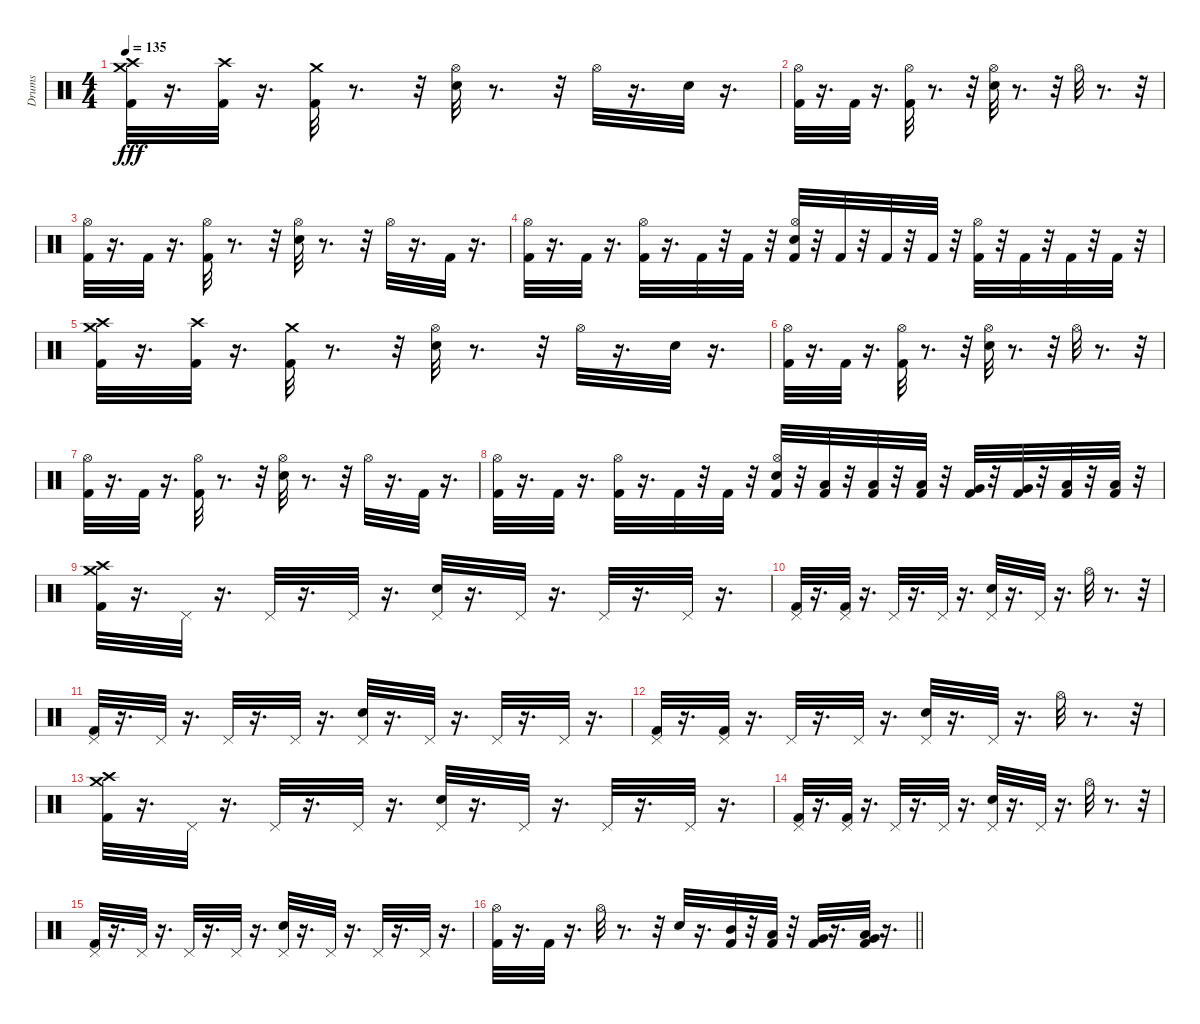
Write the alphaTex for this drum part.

\track ("Drums" "Drums") {instrument percussion}
\staff {score}
\articulation defaults
\ts (4 4)
\tempo 135
\clef neutral
\ks c
("Crash medium (hit)" "Crash high (hit)" "Kick (hit) 2").32{dy fff} r.16{d} ("Crash high (hit)" "Kick (hit) 2").32 r.16{d} ("Crash medium (hit)" "Kick (hit) 2").32 r.8{d} r.32 ("Hi-Hat (open)" "Snare (hit) 2").32 r.8{d} r.32 "Hi-Hat (open)".32 r.16{d} "Snare (hit) 2".32 r.16{d} |
("Kick (hit) 2" "Hi-Hat (open)").32 r.16{d} "Kick (hit) 2".32 r.16{d} ("Kick (hit) 2" "Hi-Hat (open)").32 r.8{d} r.32 ("Snare (hit) 2" "Hi-Hat (open)").32 r.8{d} r.32 "Hi-Hat (open)".32 r.8{d} r.32 |
("Kick (hit) 2" "Hi-Hat (open)").32 r.16{d} "Kick (hit) 2".32 r.16{d} ("Kick (hit) 2" "Hi-Hat (open)").32 r.8{d} r.32 ("Snare (hit) 2" "Hi-Hat (open)").32 r.8{d} r.32 "Hi-Hat (open)".32 r.16{d} "Kick (hit) 2".32 r.16{d} |
("Kick (hit) 2" "Hi-Hat (open)").32 r.16{d} "Kick (hit) 2".32 r.16{d} ("Kick (hit) 2" "Hi-Hat (open)").32 r.16{d} "Kick (hit) 2".32 r.32 "Kick (hit) 2".32 r.32 ("Kick (hit) 2" "Snare (hit) 2" "Hi-Hat (open)").32 r.32 "Kick (hit) 2".32 r.32 "Kick (hit) 2".32 r.32 "Kick (hit) 2".32 r.32 ("Kick (hit) 2" "Hi-Hat (open)").32 r.32 "Kick (hit) 2".32 r.32 "Kick (hit) 2".32 r.32 "Kick (hit) 2".32 r.32 |
("Crash medium (hit)" "Crash high (hit)" "Kick (hit) 2").32 r.16{d} ("Crash high (hit)" "Kick (hit) 2").32 r.16{d} ("Crash medium (hit)" "Kick (hit) 2").32 r.8{d} r.32 ("Hi-Hat (open)" "Snare (hit) 2").32 r.8{d} r.32 "Hi-Hat (open)".32 r.16{d} "Snare (hit) 2".32 r.16{d} |
("Kick (hit) 2" "Hi-Hat (open)").32 r.16{d} "Kick (hit) 2".32 r.16{d} ("Kick (hit) 2" "Hi-Hat (open)").32 r.8{d} r.32 ("Snare (hit) 2" "Hi-Hat (open)").32 r.8{d} r.32 "Hi-Hat (open)".32 r.8{d} r.32 |
("Kick (hit) 2" "Hi-Hat (open)").32 r.16{d} "Kick (hit) 2".32 r.16{d} ("Kick (hit) 2" "Hi-Hat (open)").32 r.8{d} r.32 ("Snare (hit) 2" "Hi-Hat (open)").32 r.8{d} r.32 "Hi-Hat (open)".32 r.16{d} "Kick (hit) 2".32 r.16{d} |
("Kick (hit) 2" "Hi-Hat (open)").32 r.16{d} "Kick (hit) 2".32 r.16{d} ("Kick (hit) 2" "Hi-Hat (open)").32 r.16{d} "Kick (hit) 2".32 r.32 "Kick (hit) 2".32 r.32 ("Kick (hit) 2" "Snare (hit) 2" "Hi-Hat (open)").32 r.32 ("Low Tom (hit)" "Kick (hit) 2").32 r.32 ("Low Tom (hit)" "Kick (hit) 2").32 r.32 ("Low Tom (hit)" "Kick (hit) 2").32 r.32 ("Very Low Tom (hit)" "Kick (hit) 2").32 r.32 ("Very Low Tom (hit)" "Kick (hit) 2").32 r.32 ("Low Floor Tom (hit)" "Kick (hit) 2").32 r.32 ("Low Floor Tom (hit)" "Kick (hit) 2").32 r.32 |
("Crash medium (hit)" "Crash high (hit)" "Kick (hit) 2").32 r.16{d} "Pedal Hi-Hat (hit)".32 r.16{d} "Pedal Hi-Hat (hit)".32 r.16{d} "Pedal Hi-Hat (hit)".32 r.16{d} ("Snare (hit) 2" "Pedal Hi-Hat (hit)").32 r.16{d} "Pedal Hi-Hat (hit)".32 r.16{d} "Pedal Hi-Hat (hit)".32 r.16{d} "Pedal Hi-Hat (hit)".32 r.16{d} |
("Kick (hit) 2" "Pedal Hi-Hat (hit)").32 r.16{d} ("Kick (hit) 2" "Pedal Hi-Hat (hit)").32 r.16{d} "Pedal Hi-Hat (hit)".32 r.16{d} "Pedal Hi-Hat (hit)".32 r.16{d} ("Snare (hit) 2" "Pedal Hi-Hat (hit)").32 r.16{d} "Pedal Hi-Hat (hit)".32 r.16{d} "Hi-Hat (open)".32 r.8{d} r.32 |
("Kick (hit) 2" "Pedal Hi-Hat (hit)").32 r.16{d} "Pedal Hi-Hat (hit)".32 r.16{d} "Pedal Hi-Hat (hit)".32 r.16{d} "Pedal Hi-Hat (hit)".32 r.16{d} ("Snare (hit) 2" "Pedal Hi-Hat (hit)").32 r.16{d} "Pedal Hi-Hat (hit)".32 r.16{d} "Pedal Hi-Hat (hit)".32 r.16{d} "Pedal Hi-Hat (hit)".32 r.16{d} |
("Kick (hit) 2" "Pedal Hi-Hat (hit)").32 r.16{d} ("Kick (hit) 2" "Pedal Hi-Hat (hit)").32 r.16{d} "Pedal Hi-Hat (hit)".32 r.16{d} "Pedal Hi-Hat (hit)".32 r.16{d} ("Snare (hit) 2" "Pedal Hi-Hat (hit)").32 r.16{d} "Pedal Hi-Hat (hit)".32 r.16{d} "Hi-Hat (open)".32 r.8{d} r.32 |
("Crash medium (hit)" "Crash high (hit)" "Kick (hit) 2").32 r.16{d} "Pedal Hi-Hat (hit)".32 r.16{d} "Pedal Hi-Hat (hit)".32 r.16{d} "Pedal Hi-Hat (hit)".32 r.16{d} ("Snare (hit) 2" "Pedal Hi-Hat (hit)").32 r.16{d} "Pedal Hi-Hat (hit)".32 r.16{d} "Pedal Hi-Hat (hit)".32 r.16{d} "Pedal Hi-Hat (hit)".32 r.16{d} |
("Kick (hit) 2" "Pedal Hi-Hat (hit)").32 r.16{d} ("Kick (hit) 2" "Pedal Hi-Hat (hit)").32 r.16{d} "Pedal Hi-Hat (hit)".32 r.16{d} "Pedal Hi-Hat (hit)".32 r.16{d} ("Snare (hit) 2" "Pedal Hi-Hat (hit)").32 r.16{d} "Pedal Hi-Hat (hit)".32 r.16{d} "Hi-Hat (open)".32 r.8{d} r.32 |
("Kick (hit) 2" "Pedal Hi-Hat (hit)").32 r.16{d} "Pedal Hi-Hat (hit)".32 r.16{d} "Pedal Hi-Hat (hit)".32 r.16{d} "Pedal Hi-Hat (hit)".32 r.16{d} ("Snare (hit) 2" "Pedal Hi-Hat (hit)").32 r.16{d} "Pedal Hi-Hat (hit)".32 r.16{d} "Pedal Hi-Hat (hit)".32 r.16{d} "Pedal Hi-Hat (hit)".32 r.16{d} |
\barLineRight lightlight
("Hi-Hat (open)" "Kick (hit) 2").32 r.16{d} "Kick (hit) 2".32 r.16{d} "Hi-Hat (open)".32 r.8{d} r.32 "Snare (hit) 2".32 r.16{d} ("Mid Tom (hit)" "Kick (hit) 2").32 r.32 ("Low Tom (hit)" "Kick (hit) 2").32 r.32 ("Very Low Tom (hit)" "Kick (hit) 2").32 r.16{d} ("Very Low Tom (hit)" "Low Floor Tom (hit)" "Kick (hit) 2").32 r.16{d}
